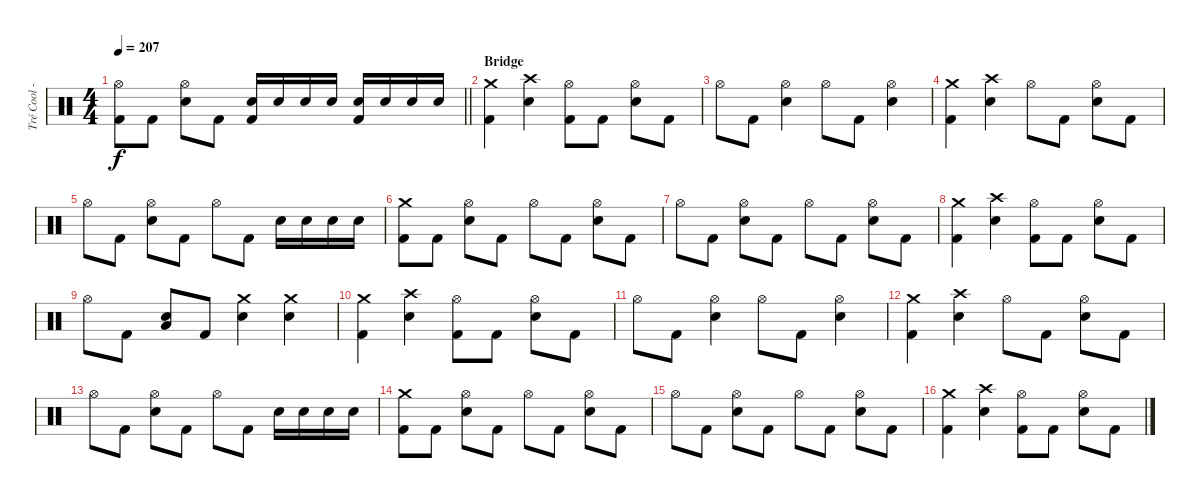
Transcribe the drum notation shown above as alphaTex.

\track ("Tré Cool - Drums" "Tré Cool -") {instrument percussion}
\staff {score}
\articulation defaults
\ts (4 4)
\tempo 207
\clef neutral
\barLineRight lightlight
\ks c
("Hi-Hat (open)" "Kick (hit) 2").8{dy f} "Kick (hit) 2".8 ("Hi-Hat (open)" "Electric Snare (hit)").8 "Kick (hit) 2".8 ("Electric Snare (hit)" "Kick (hit) 2").16 "Electric Snare (hit)".16 "Electric Snare (hit)".16 "Electric Snare (hit)".16 ("Electric Snare (hit)" "Kick (hit) 2").16 "Electric Snare (hit)".16 "Electric Snare (hit)".16 "Electric Snare (hit)".16 |
\section ("" "Bridge")
("Crash medium (hit)" "Kick (hit) 2").4 ("Crash high (hit)" "Electric Snare (hit)").4 ("Hi-Hat (open)" "Kick (hit) 2").8 "Kick (hit) 2".8 ("Hi-Hat (open)" "Electric Snare (hit)").8 "Kick (hit) 2".8 |
"Hi-Hat (open)".8 "Kick (hit) 2".8 ("Hi-Hat (open)" "Electric Snare (hit)").4 "Hi-Hat (open)".8 "Kick (hit) 2".8 ("Hi-Hat (open)" "Electric Snare (hit)").4 |
("Crash medium (hit)" "Kick (hit) 2").4 ("Crash high (hit)" "Electric Snare (hit)").4 "Hi-Hat (open)".8 "Kick (hit) 2".8 ("Hi-Hat (open)" "Electric Snare (hit)").8 "Kick (hit) 2".8 |
"Hi-Hat (open)".8 "Kick (hit) 2".8 ("Hi-Hat (open)" "Electric Snare (hit)").8 "Kick (hit) 2".8 "Hi-Hat (open)".8 "Kick (hit) 2".8 "Electric Snare (hit)".16 "Electric Snare (hit)".16 "Electric Snare (hit)".16 "Electric Snare (hit)".16 |
("Crash medium (hit)" "Kick (hit) 2").8 "Kick (hit) 2".8 ("Hi-Hat (open)" "Electric Snare (hit)").8 "Kick (hit) 2".8 "Hi-Hat (open)".8 "Kick (hit) 2".8 ("Hi-Hat (open)" "Electric Snare (hit)").8 "Kick (hit) 2".8 |
"Hi-Hat (open)".8 "Kick (hit) 2".8 ("Hi-Hat (open)" "Electric Snare (hit)").8 "Kick (hit) 2".8 "Hi-Hat (open)".8 "Kick (hit) 2".8 ("Hi-Hat (open)" "Electric Snare (hit)").8 "Kick (hit) 2".8 |
("Crash medium (hit)" "Kick (hit) 2").4 ("Crash high (hit)" "Electric Snare (hit)").4 ("Hi-Hat (open)" "Kick (hit) 2").8 "Kick (hit) 2".8 ("Hi-Hat (open)" "Electric Snare (hit)").8 "Kick (hit) 2".8 |
"Hi-Hat (open)".8 "Kick (hit) 2".8 ("Low Floor Tom (hit)" "Electric Snare (hit)").8 "Kick (hit) 2".8 ("Crash medium (hit)" "Electric Snare (hit)").4 ("Crash medium (hit)" "Electric Snare (hit)").4 |
("Crash medium (hit)" "Kick (hit) 2").4 ("Crash high (hit)" "Electric Snare (hit)").4 ("Hi-Hat (open)" "Kick (hit) 2").8 "Kick (hit) 2".8 ("Hi-Hat (open)" "Electric Snare (hit)").8 "Kick (hit) 2".8 |
"Hi-Hat (open)".8 "Kick (hit) 2".8 ("Hi-Hat (open)" "Electric Snare (hit)").4 "Hi-Hat (open)".8 "Kick (hit) 2".8 ("Hi-Hat (open)" "Electric Snare (hit)").4 |
("Crash medium (hit)" "Kick (hit) 2").4 ("Crash high (hit)" "Electric Snare (hit)").4 "Hi-Hat (open)".8 "Kick (hit) 2".8 ("Hi-Hat (open)" "Electric Snare (hit)").8 "Kick (hit) 2".8 |
"Hi-Hat (open)".8 "Kick (hit) 2".8 ("Hi-Hat (open)" "Electric Snare (hit)").8 "Kick (hit) 2".8 "Hi-Hat (open)".8 "Kick (hit) 2".8 "Electric Snare (hit)".16 "Electric Snare (hit)".16 "Electric Snare (hit)".16 "Electric Snare (hit)".16 |
("Crash medium (hit)" "Kick (hit) 2").8 "Kick (hit) 2".8 ("Hi-Hat (open)" "Electric Snare (hit)").8 "Kick (hit) 2".8 "Hi-Hat (open)".8 "Kick (hit) 2".8 ("Hi-Hat (open)" "Electric Snare (hit)").8 "Kick (hit) 2".8 |
"Hi-Hat (open)".8 "Kick (hit) 2".8 ("Hi-Hat (open)" "Electric Snare (hit)").8 "Kick (hit) 2".8 "Hi-Hat (open)".8 "Kick (hit) 2".8 ("Hi-Hat (open)" "Electric Snare (hit)").8 "Kick (hit) 2".8 |
("Crash medium (hit)" "Kick (hit) 2").4 ("Crash high (hit)" "Electric Snare (hit)").4 ("Hi-Hat (open)" "Kick (hit) 2").8 "Kick (hit) 2".8 ("Hi-Hat (open)" "Electric Snare (hit)").8 "Kick (hit) 2".8
